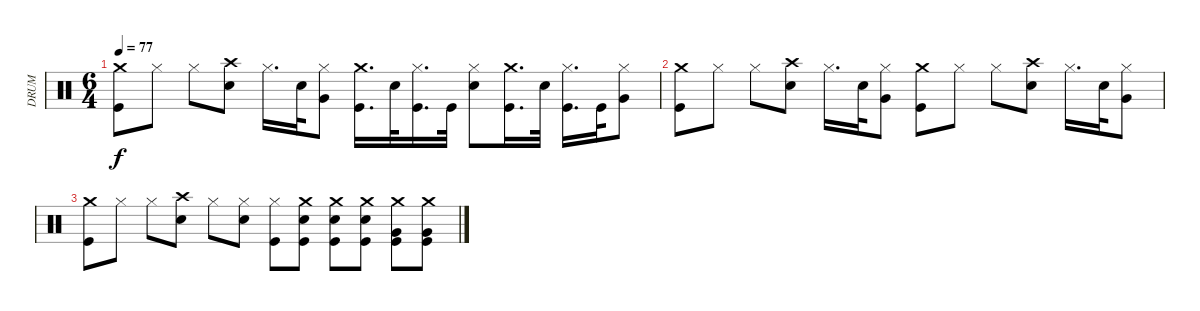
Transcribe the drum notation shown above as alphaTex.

\track ("DRUM" "DRUM") {instrument percussion}
\staff {score}
\articulation defaults
\ts (6 4)
\tempo 77
\clef neutral
\ks c
("Crash medium (hit)" "Kick (hit)").8{dy f} "Hi-Hat (closed)".8 "Hi-Hat (closed)".8 ("Crash high (hit)" "Snare (hit) 2").8 "Hi-Hat (closed)".16{d} "Snare (hit) 2".32 ("Hi-Hat (closed)" "Very Low Tom (hit)").8 ("Crash medium (hit)" "Kick (hit)").16{d} "Snare (hit) 2".32 ("Hi-Hat (closed)" "Kick (hit)").16{d} "Kick (hit)".32 ("Hi-Hat (closed)" "Snare (hit) 2").8 ("Crash medium (hit)" "Kick (hit)").16{d} "Snare (hit) 2".32 ("Hi-Hat (closed)" "Kick (hit)").16{d} "Kick (hit)".32 ("Hi-Hat (closed)" "Very Low Tom (hit)").8 |
("Crash medium (hit)" "Kick (hit)").8 "Hi-Hat (closed)".8 "Hi-Hat (closed)".8 ("Crash high (hit)" "Snare (hit) 2").8 "Hi-Hat (closed)".16{d} "Snare (hit) 2".32 ("Hi-Hat (closed)" "Very Low Tom (hit)").8 ("Crash medium (hit)" "Kick (hit)").8 "Hi-Hat (closed)".8 "Hi-Hat (closed)".8 ("Crash high (hit)" "Snare (hit) 2").8 "Hi-Hat (closed)".16{d} "Snare (hit) 2".32 ("Hi-Hat (closed)" "Very Low Tom (hit)").8 |
("Crash medium (hit)" "Kick (hit)").8 "Hi-Hat (closed)".8 "Hi-Hat (closed)".8 ("Crash high (hit)" "Snare (hit) 2").8 "Hi-Hat (closed)".8 ("Hi-Hat (closed)" "Snare (hit) 2").8 ("Hi-Hat (closed)" "Kick (hit)").8 ("Crash medium (hit)" "Snare (hit) 2" "Kick (hit)").8 ("Crash medium (hit)" "Snare (hit) 2" "Kick (hit)").8 ("Crash medium (hit)" "Snare (hit) 2" "Kick (hit)").8 ("Crash medium (hit)" "Very Low Tom (hit)" "Kick (hit)").8 ("Crash medium (hit)" "Very Low Tom (hit)" "Kick (hit)").8
